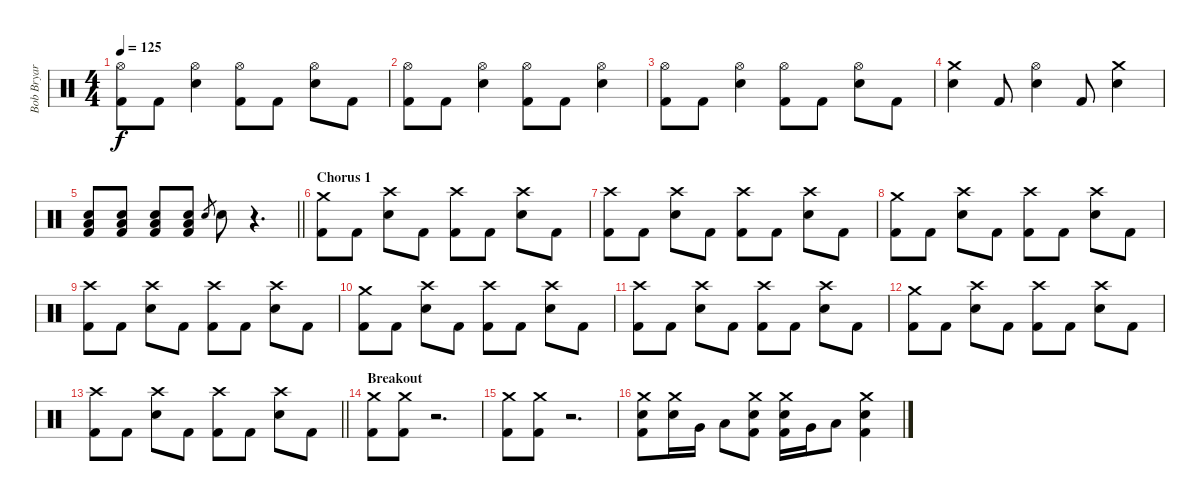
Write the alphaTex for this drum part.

\track ("Bob Bryar" "Bob Bryar") {instrument percussion}
\staff {score}
\articulation defaults
\ts (4 4)
\tempo 125
\clef neutral
\ks c
("Hi-Hat (open)" "Kick (hit) 2").8{dy f} "Kick (hit) 2".8 ("Hi-Hat (open)" "Electric Snare (hit)").4 ("Hi-Hat (open)" "Kick (hit) 2").8 "Kick (hit) 2".8 ("Hi-Hat (open)" "Electric Snare (hit)").8 "Kick (hit) 2".8 |
("Hi-Hat (open)" "Kick (hit) 2").8 "Kick (hit) 2".8 ("Hi-Hat (open)" "Electric Snare (hit)").4 ("Hi-Hat (open)" "Kick (hit) 2").8 "Kick (hit) 2".8 ("Hi-Hat (open)" "Electric Snare (hit)").4 |
("Hi-Hat (open)" "Kick (hit) 2").8 "Kick (hit) 2".8 ("Hi-Hat (open)" "Electric Snare (hit)").4 ("Hi-Hat (open)" "Kick (hit) 2").8 "Kick (hit) 2".8 ("Hi-Hat (open)" "Electric Snare (hit)").8 "Kick (hit) 2".8 |
("Crash medium (hit)" "Electric Snare (hit)").4 "Kick (hit) 2".8 ("Hi-Hat (open)" "Electric Snare (hit)").4 "Kick (hit) 2".8 ("Crash medium (hit)" "Electric Snare (hit)").4 |
\barLineRight lightlight
("Electric Snare (hit)" "Low Floor Tom (hit)" "Kick (hit) 2").8 ("Electric Snare (hit)" "Low Floor Tom (hit)" "Kick (hit) 2").8 ("Electric Snare (hit)" "Low Floor Tom (hit)" "Kick (hit) 2").8 ("Electric Snare (hit)" "Low Floor Tom (hit)" "Kick (hit) 2").8 "Electric Snare (hit)".8{gr} "Electric Snare (hit)".8 r.4{d} |
\section ("" "Chorus 1")
("Crash medium (hit)" "Kick (hit) 2").8 "Kick (hit) 2".8 ("Crash high (hit)" "Electric Snare (hit)").8 "Kick (hit) 2".8 ("Crash high (hit)" "Kick (hit) 2").8 "Kick (hit) 2".8 ("Crash high (hit)" "Electric Snare (hit)").8 "Kick (hit) 2".8 |
("Crash high (hit)" "Kick (hit) 2").8 "Kick (hit) 2".8 ("Crash high (hit)" "Electric Snare (hit)").8 "Kick (hit) 2".8 ("Crash high (hit)" "Kick (hit) 2").8 "Kick (hit) 2".8 ("Crash high (hit)" "Electric Snare (hit)").8 "Kick (hit) 2".8 |
("Crash medium (hit)" "Kick (hit) 2").8 "Kick (hit) 2".8 ("Crash high (hit)" "Electric Snare (hit)").8 "Kick (hit) 2".8 ("Crash high (hit)" "Kick (hit) 2").8 "Kick (hit) 2".8 ("Crash high (hit)" "Electric Snare (hit)").8 "Kick (hit) 2".8 |
("Crash high (hit)" "Kick (hit) 2").8 "Kick (hit) 2".8 ("Crash high (hit)" "Electric Snare (hit)").8 "Kick (hit) 2".8 ("Crash high (hit)" "Kick (hit) 2").8 "Kick (hit) 2".8 ("Crash high (hit)" "Electric Snare (hit)").8 "Kick (hit) 2".8 |
("Crash medium (hit)" "Kick (hit) 2").8 "Kick (hit) 2".8 ("Crash high (hit)" "Electric Snare (hit)").8 "Kick (hit) 2".8 ("Crash high (hit)" "Kick (hit) 2").8 "Kick (hit) 2".8 ("Crash high (hit)" "Electric Snare (hit)").8 "Kick (hit) 2".8 |
("Crash high (hit)" "Kick (hit) 2").8 "Kick (hit) 2".8 ("Crash high (hit)" "Electric Snare (hit)").8 "Kick (hit) 2".8 ("Crash high (hit)" "Kick (hit) 2").8 "Kick (hit) 2".8 ("Crash high (hit)" "Electric Snare (hit)").8 "Kick (hit) 2".8 |
("Crash medium (hit)" "Kick (hit) 2").8 "Kick (hit) 2".8 ("Crash high (hit)" "Electric Snare (hit)").8 "Kick (hit) 2".8 ("Crash high (hit)" "Kick (hit) 2").8 "Kick (hit) 2".8 ("Crash high (hit)" "Electric Snare (hit)").8 "Kick (hit) 2".8 |
\barLineRight lightlight
("Crash high (hit)" "Kick (hit) 2").8 "Kick (hit) 2".8 ("Crash high (hit)" "Electric Snare (hit)").8 "Kick (hit) 2".8 ("Crash high (hit)" "Kick (hit) 2").8 "Kick (hit) 2".8 ("Crash high (hit)" "Electric Snare (hit)").8 "Kick (hit) 2".8 |
\section ("" "Breakout")
("Crash medium (hit)" "Kick (hit) 2").8 ("Crash medium (hit)" "Kick (hit) 2").8 r.2{d} |
("Crash medium (hit)" "Kick (hit) 2").8 ("Crash medium (hit)" "Kick (hit) 2").8 r.2{d} |
("Crash medium (hit)" "Electric Snare (hit)" "Kick (hit) 2").8 ("Crash medium (hit)" "Electric Snare (hit)").16 "Very Low Tom (hit)".16 "Low Floor Tom (hit)".8 ("Crash medium (hit)" "Electric Snare (hit)" "Kick (hit) 2").8 ("Crash medium (hit)" "Electric Snare (hit)" "Kick (hit) 2").16 "Very Low Tom (hit)".16 "Low Floor Tom (hit)".8 ("Crash medium (hit)" "Electric Snare (hit)" "Kick (hit) 2").4
